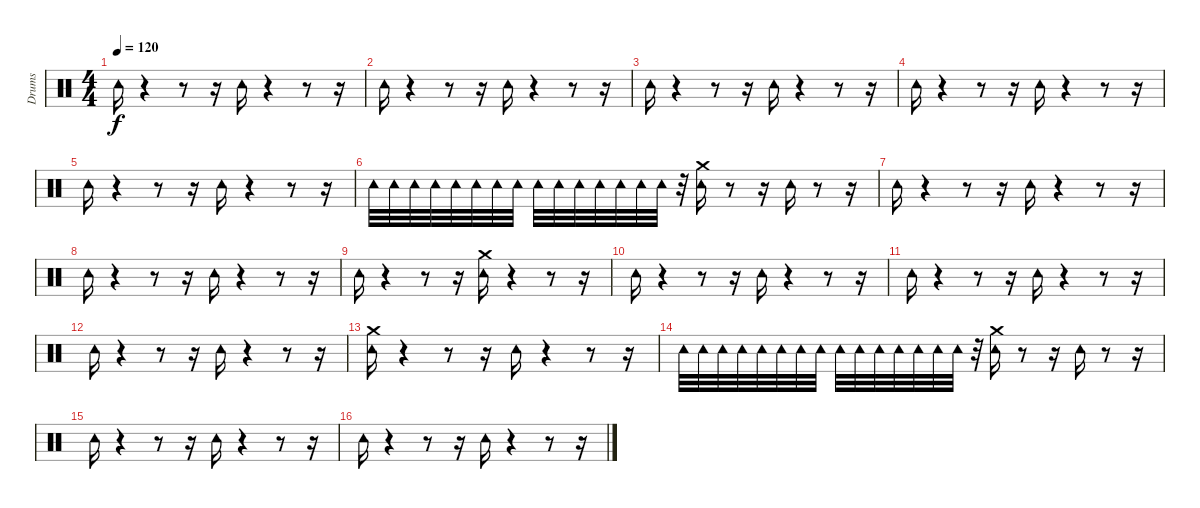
\track ("Drums" "Drums") {instrument percussion}
\staff {score}
\articulation defaults
\ts (4 4)
\tempo 120
\clef neutral
\ks c "Tambourine (hit)".16{dy f}
r.4 r.8 r.16 "Tambourine (hit)".16 r.4 r.8 r.16 |
"Tambourine (hit)".16 r.4 r.8 r.16 "Tambourine (hit)".16 r.4 r.8 r.16 |
"Tambourine (hit)".16 r.4 r.8 r.16 "Tambourine (hit)".16 r.4 r.8 r.16 |
"Tambourine (hit)".16 r.4 r.8 r.16 "Tambourine (hit)".16 r.4 r.8 r.16 |
"Tambourine (hit)".16 r.4 r.8 r.16 "Tambourine (hit)".16 r.4 r.8 r.16 |
"Tambourine (hit)".32 "Tambourine (hit)".32 "Tambourine (hit)".32 "Tambourine (hit)".32 "Tambourine (hit)".32 "Tambourine (hit)".32 "Tambourine (hit)".32 "Tambourine (hit)".32 "Tambourine (hit)".32 "Tambourine (hit)".32 "Tambourine (hit)".32 "Tambourine (hit)".32 "Tambourine (hit)".32 "Tambourine (hit)".32 "Tambourine (hit)".32 r.32 ("Crash medium (hit)" "Tambourine (hit)").16 r.8 r.16 "Tambourine (hit)".16 r.8 r.16 |
"Tambourine (hit)".16 r.4 r.8 r.16 "Tambourine (hit)".16 r.4 r.8 r.16 |
"Tambourine (hit)".16 r.4 r.8 r.16 "Tambourine (hit)".16 r.4 r.8 r.16 |
"Tambourine (hit)".16 r.4 r.8 r.16 ("Crash medium (hit)" "Tambourine (hit)").16 r.4 r.8 r.16 |
"Tambourine (hit)".16 r.4 r.8 r.16 "Tambourine (hit)".16 r.4 r.8 r.16 |
"Tambourine (hit)".16 r.4 r.8 r.16 "Tambourine (hit)".16 r.4 r.8 r.16 |
"Tambourine (hit)".16 r.4 r.8 r.16 "Tambourine (hit)".16 r.4 r.8 r.16 |
("Crash medium (hit)" "Tambourine (hit)").16 r.4 r.8 r.16 "Tambourine (hit)".16 r.4 r.8 r.16 |
"Tambourine (hit)".32 "Tambourine (hit)".32 "Tambourine (hit)".32 "Tambourine (hit)".32 "Tambourine (hit)".32 "Tambourine (hit)".32 "Tambourine (hit)".32 "Tambourine (hit)".32 "Tambourine (hit)".32 "Tambourine (hit)".32 "Tambourine (hit)".32 "Tambourine (hit)".32 "Tambourine (hit)".32 "Tambourine (hit)".32 "Tambourine (hit)".32 r.32 ("Crash medium (hit)" "Tambourine (hit)").16 r.8 r.16 "Tambourine (hit)".16 r.8 r.16 |
"Tambourine (hit)".16 r.4 r.8 r.16 "Tambourine (hit)".16 r.4 r.8 r.16 |
"Tambourine (hit)".16 r.4 r.8 r.16 "Tambourine (hit)".16 r.4 r.8 r.16
